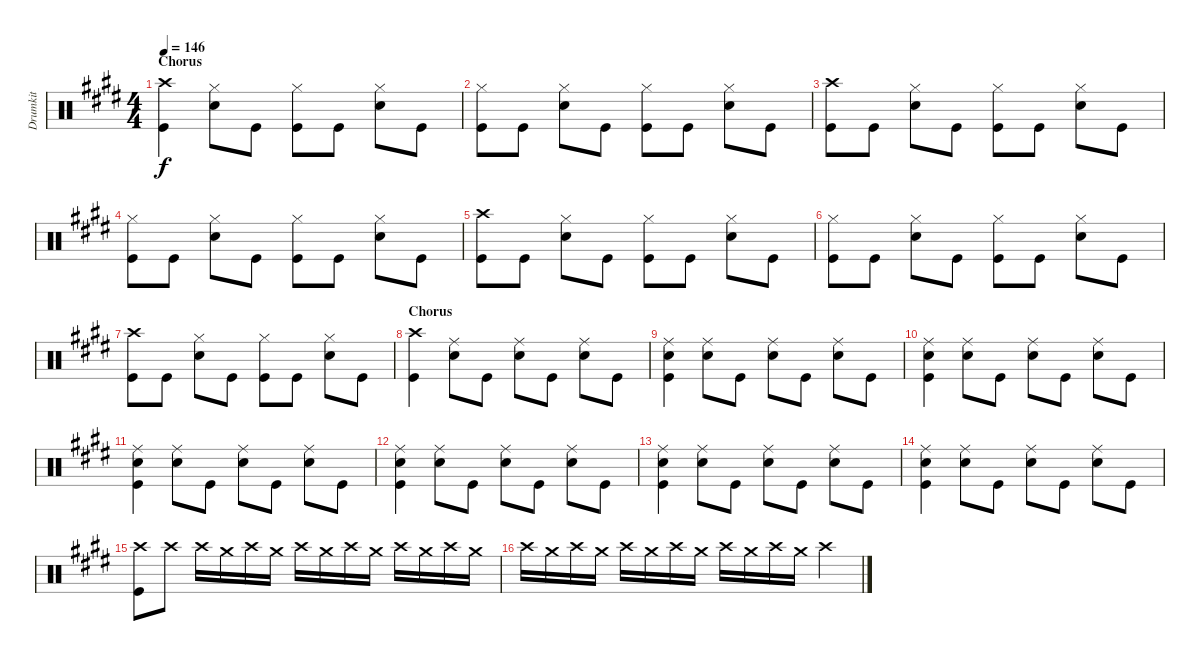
\track ("Drumkit" "Drumkit") {instrument percussion}
\staff {score}
\articulation defaults
\ts (4 4)
\section ("" "Chorus")
\tempo 146
\clef neutral
\ks e
("Kick (hit)" "Crash high (hit)").4{dy f} ("Snare (hit) 2" "Hi-Hat (closed)").8 "Kick (hit)".8 ("Kick (hit)" "Hi-Hat (closed)").8 "Kick (hit)".8 ("Snare (hit) 2" "Hi-Hat (closed)").8 "Kick (hit)".8 |
("Kick (hit)" "Hi-Hat (closed)").8 "Kick (hit)".8 ("Snare (hit) 2" "Hi-Hat (closed)").8 "Kick (hit)".8 ("Kick (hit)" "Hi-Hat (closed)").8 "Kick (hit)".8 ("Snare (hit) 2" "Hi-Hat (closed)").8 "Kick (hit)".8 |
("Kick (hit)" "Crash high (hit)").8 "Kick (hit)".8 ("Snare (hit) 2" "Hi-Hat (closed)").8 "Kick (hit)".8 ("Kick (hit)" "Hi-Hat (closed)").8 "Kick (hit)".8 ("Snare (hit) 2" "Hi-Hat (closed)").8 "Kick (hit)".8 |
("Kick (hit)" "Hi-Hat (closed)").8 "Kick (hit)".8 ("Snare (hit) 2" "Hi-Hat (closed)").8 "Kick (hit)".8 ("Kick (hit)" "Hi-Hat (closed)").8 "Kick (hit)".8 ("Snare (hit) 2" "Hi-Hat (closed)").8 "Kick (hit)".8 |
("Kick (hit)" "Crash high (hit)").8 "Kick (hit)".8 ("Snare (hit) 2" "Hi-Hat (closed)").8 "Kick (hit)".8 ("Kick (hit)" "Hi-Hat (closed)").8 "Kick (hit)".8 ("Snare (hit) 2" "Hi-Hat (closed)").8 "Kick (hit)".8 |
("Kick (hit)" "Hi-Hat (closed)").8 "Kick (hit)".8 ("Snare (hit) 2" "Hi-Hat (closed)").8 "Kick (hit)".8 ("Kick (hit)" "Hi-Hat (closed)").8 "Kick (hit)".8 ("Snare (hit) 2" "Hi-Hat (closed)").8 "Kick (hit)".8 |
("Kick (hit)" "Crash high (hit)").8 "Kick (hit)".8 ("Snare (hit) 2" "Hi-Hat (closed)").8 "Kick (hit)".8 ("Kick (hit)" "Hi-Hat (closed)").8 "Kick (hit)".8 ("Snare (hit) 2" "Hi-Hat (closed)").8 "Kick (hit)".8 |
\section ("" "Chorus")
("Kick (hit)" "Crash high (hit)").4 ("Snare (hit) 2" "Ride (middle)").8 "Kick (hit)".8 ("Snare (hit) 2" "Ride (middle)").8 "Kick (hit)".8 ("Snare (hit) 2" "Ride (middle)").8 "Kick (hit)".8 |
("Kick (hit)" "Snare (hit) 2" "Ride (middle)").4 ("Snare (hit) 2" "Ride (middle)").8 "Kick (hit)".8 ("Snare (hit) 2" "Ride (middle)").8 "Kick (hit)".8 ("Snare (hit) 2" "Ride (middle)").8 "Kick (hit)".8 |
("Kick (hit)" "Snare (hit) 2" "Ride (middle)").4 ("Snare (hit) 2" "Ride (middle)").8 "Kick (hit)".8 ("Snare (hit) 2" "Ride (middle)").8 "Kick (hit)".8 ("Snare (hit) 2" "Ride (middle)").8 "Kick (hit)".8 |
("Kick (hit)" "Snare (hit) 2" "Ride (middle)").4 ("Snare (hit) 2" "Ride (middle)").8 "Kick (hit)".8 ("Snare (hit) 2" "Ride (middle)").8 "Kick (hit)".8 ("Snare (hit) 2" "Ride (middle)").8 "Kick (hit)".8 |
("Kick (hit)" "Snare (hit) 2" "Ride (middle)").4 ("Snare (hit) 2" "Ride (middle)").8 "Kick (hit)".8 ("Snare (hit) 2" "Ride (middle)").8 "Kick (hit)".8 ("Snare (hit) 2" "Ride (middle)").8 "Kick (hit)".8 |
("Kick (hit)" "Snare (hit) 2" "Ride (middle)").4 ("Snare (hit) 2" "Ride (middle)").8 "Kick (hit)".8 ("Snare (hit) 2" "Ride (middle)").8 "Kick (hit)".8 ("Snare (hit) 2" "Ride (middle)").8 "Kick (hit)".8 |
("Kick (hit)" "Snare (hit) 2" "Ride (middle)").4 ("Snare (hit) 2" "Ride (middle)").8 "Kick (hit)".8 ("Snare (hit) 2" "Ride (middle)").8 "Kick (hit)".8 ("Snare (hit) 2" "Ride (middle)").8 "Kick (hit)".8 |
("Kick (hit)" "Crash high (hit)").8 "Crash high (hit)".8 "Crash high (hit)".16 "Crash medium (hit)".16 "Crash high (hit)".16 "Crash medium (hit)".16 "Crash high (hit)".16 "Crash medium (hit)".16 "Crash high (hit)".16 "Crash medium (hit)".16 "Crash high (hit)".16 "Crash medium (hit)".16 "Crash high (hit)".16 "Crash medium (hit)".16 |
"Crash high (hit)".16 "Crash medium (hit)".16 "Crash high (hit)".16 "Crash medium (hit)".16 "Crash high (hit)".16 "Crash medium (hit)".16 "Crash high (hit)".16 "Crash medium (hit)".16 "Crash high (hit)".16 "Crash medium (hit)".16 "Crash high (hit)".16 "Crash medium (hit)".16 "Crash high (hit)".4
